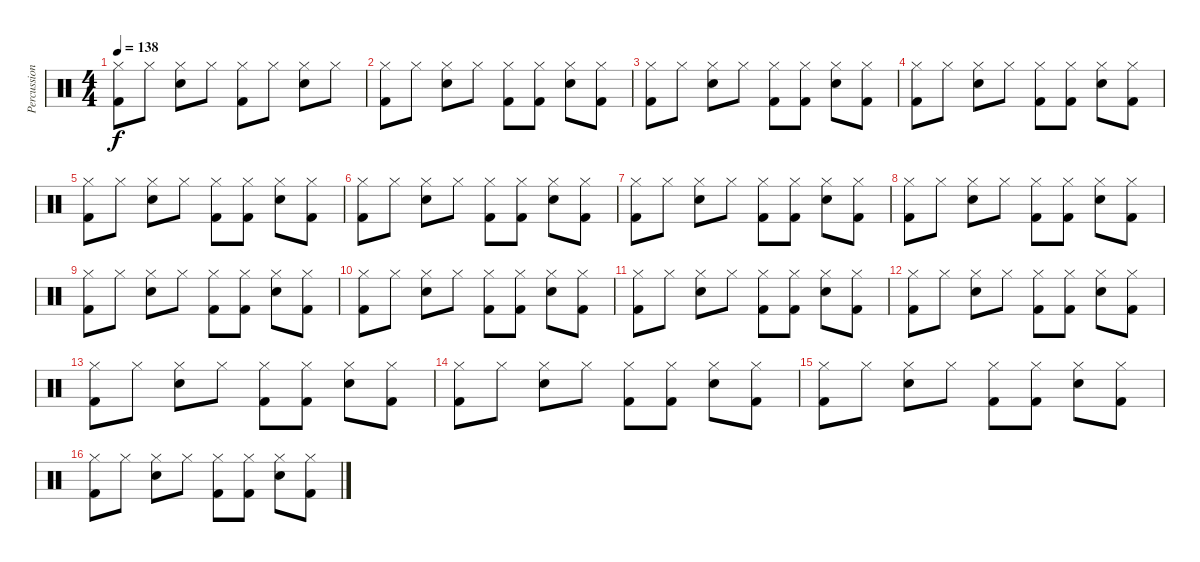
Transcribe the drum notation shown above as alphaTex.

\track ("Percussion" "Percussion") {instrument percussion}
\staff {score}
\articulation defaults
\ts (4 4)
\tempo 138
\clef neutral
\ks c
("Hi-Hat (closed)" "Kick (hit) 2").8{dy f} "Hi-Hat (closed)".8 ("Hi-Hat (closed)" "Snare (hit) 2").8 "Hi-Hat (closed)".8 ("Hi-Hat (closed)" "Kick (hit) 2").8 "Hi-Hat (closed)".8 ("Hi-Hat (closed)" "Snare (hit) 2").8 "Hi-Hat (closed)".8 |
("Hi-Hat (closed)" "Kick (hit) 2").8 "Hi-Hat (closed)".8 ("Hi-Hat (closed)" "Snare (hit) 2").8 "Hi-Hat (closed)".8 ("Hi-Hat (closed)" "Kick (hit) 2").8 ("Hi-Hat (closed)" "Kick (hit) 2").8 ("Hi-Hat (closed)" "Snare (hit) 2").8 ("Hi-Hat (closed)" "Kick (hit) 2").8 |
("Hi-Hat (closed)" "Kick (hit) 2").8 "Hi-Hat (closed)".8 ("Hi-Hat (closed)" "Snare (hit) 2").8 "Hi-Hat (closed)".8 ("Hi-Hat (closed)" "Kick (hit) 2").8 ("Hi-Hat (closed)" "Kick (hit) 2").8 ("Hi-Hat (closed)" "Snare (hit) 2").8 ("Hi-Hat (closed)" "Kick (hit) 2").8 |
("Hi-Hat (closed)" "Kick (hit) 2").8 "Hi-Hat (closed)".8 ("Hi-Hat (closed)" "Snare (hit) 2").8 "Hi-Hat (closed)".8 ("Hi-Hat (closed)" "Kick (hit) 2").8 ("Hi-Hat (closed)" "Kick (hit) 2").8 ("Hi-Hat (closed)" "Snare (hit) 2").8 ("Hi-Hat (closed)" "Kick (hit) 2").8 |
("Hi-Hat (closed)" "Kick (hit) 2").8 "Hi-Hat (closed)".8 ("Hi-Hat (closed)" "Snare (hit) 2").8 "Hi-Hat (closed)".8 ("Hi-Hat (closed)" "Kick (hit) 2").8 ("Hi-Hat (closed)" "Kick (hit) 2").8 ("Hi-Hat (closed)" "Snare (hit) 2").8 ("Hi-Hat (closed)" "Kick (hit) 2").8 |
("Hi-Hat (closed)" "Kick (hit) 2").8 "Hi-Hat (closed)".8 ("Hi-Hat (closed)" "Snare (hit) 2").8 "Hi-Hat (closed)".8 ("Hi-Hat (closed)" "Kick (hit) 2").8 ("Hi-Hat (closed)" "Kick (hit) 2").8 ("Hi-Hat (closed)" "Snare (hit) 2").8 ("Hi-Hat (closed)" "Kick (hit) 2").8 |
("Hi-Hat (closed)" "Kick (hit) 2").8 "Hi-Hat (closed)".8 ("Hi-Hat (closed)" "Snare (hit) 2").8 "Hi-Hat (closed)".8 ("Hi-Hat (closed)" "Kick (hit) 2").8 ("Hi-Hat (closed)" "Kick (hit) 2").8 ("Hi-Hat (closed)" "Snare (hit) 2").8 ("Hi-Hat (closed)" "Kick (hit) 2").8 |
("Hi-Hat (closed)" "Kick (hit) 2").8 "Hi-Hat (closed)".8 ("Hi-Hat (closed)" "Snare (hit) 2").8 "Hi-Hat (closed)".8 ("Hi-Hat (closed)" "Kick (hit) 2").8 ("Hi-Hat (closed)" "Kick (hit) 2").8 ("Hi-Hat (closed)" "Snare (hit) 2").8 ("Hi-Hat (closed)" "Kick (hit) 2").8 |
("Hi-Hat (closed)" "Kick (hit) 2").8 "Hi-Hat (closed)".8 ("Hi-Hat (closed)" "Snare (hit) 2").8 "Hi-Hat (closed)".8 ("Hi-Hat (closed)" "Kick (hit) 2").8 ("Hi-Hat (closed)" "Kick (hit) 2").8 ("Hi-Hat (closed)" "Snare (hit) 2").8 ("Hi-Hat (closed)" "Kick (hit) 2").8 |
("Hi-Hat (closed)" "Kick (hit) 2").8 "Hi-Hat (closed)".8 ("Hi-Hat (closed)" "Snare (hit) 2").8 "Hi-Hat (closed)".8 ("Hi-Hat (closed)" "Kick (hit) 2").8 ("Hi-Hat (closed)" "Kick (hit) 2").8 ("Hi-Hat (closed)" "Snare (hit) 2").8 ("Hi-Hat (closed)" "Kick (hit) 2").8 |
("Hi-Hat (closed)" "Kick (hit) 2").8 "Hi-Hat (closed)".8 ("Hi-Hat (closed)" "Snare (hit) 2").8 "Hi-Hat (closed)".8 ("Hi-Hat (closed)" "Kick (hit) 2").8 ("Hi-Hat (closed)" "Kick (hit) 2").8 ("Hi-Hat (closed)" "Snare (hit) 2").8 ("Hi-Hat (closed)" "Kick (hit) 2").8 |
("Hi-Hat (closed)" "Kick (hit) 2").8 "Hi-Hat (closed)".8 ("Hi-Hat (closed)" "Snare (hit) 2").8 "Hi-Hat (closed)".8 ("Hi-Hat (closed)" "Kick (hit) 2").8 ("Hi-Hat (closed)" "Kick (hit) 2").8 ("Hi-Hat (closed)" "Snare (hit) 2").8 ("Hi-Hat (closed)" "Kick (hit) 2").8 |
("Hi-Hat (closed)" "Kick (hit) 2").8 "Hi-Hat (closed)".8 ("Hi-Hat (closed)" "Snare (hit) 2").8 "Hi-Hat (closed)".8 ("Hi-Hat (closed)" "Kick (hit) 2").8 ("Hi-Hat (closed)" "Kick (hit) 2").8 ("Hi-Hat (closed)" "Snare (hit) 2").8 ("Hi-Hat (closed)" "Kick (hit) 2").8 |
("Hi-Hat (closed)" "Kick (hit) 2").8 "Hi-Hat (closed)".8 ("Hi-Hat (closed)" "Snare (hit) 2").8 "Hi-Hat (closed)".8 ("Hi-Hat (closed)" "Kick (hit) 2").8 ("Hi-Hat (closed)" "Kick (hit) 2").8 ("Hi-Hat (closed)" "Snare (hit) 2").8 ("Hi-Hat (closed)" "Kick (hit) 2").8 |
("Hi-Hat (closed)" "Kick (hit) 2").8 "Hi-Hat (closed)".8 ("Hi-Hat (closed)" "Snare (hit) 2").8 "Hi-Hat (closed)".8 ("Hi-Hat (closed)" "Kick (hit) 2").8 ("Hi-Hat (closed)" "Kick (hit) 2").8 ("Hi-Hat (closed)" "Snare (hit) 2").8 ("Hi-Hat (closed)" "Kick (hit) 2").8 |
("Hi-Hat (closed)" "Kick (hit) 2").8 "Hi-Hat (closed)".8 ("Hi-Hat (closed)" "Snare (hit) 2").8 "Hi-Hat (closed)".8 ("Hi-Hat (closed)" "Kick (hit) 2").8 ("Hi-Hat (closed)" "Kick (hit) 2").8 ("Hi-Hat (closed)" "Snare (hit) 2").8 ("Hi-Hat (closed)" "Kick (hit) 2").8
